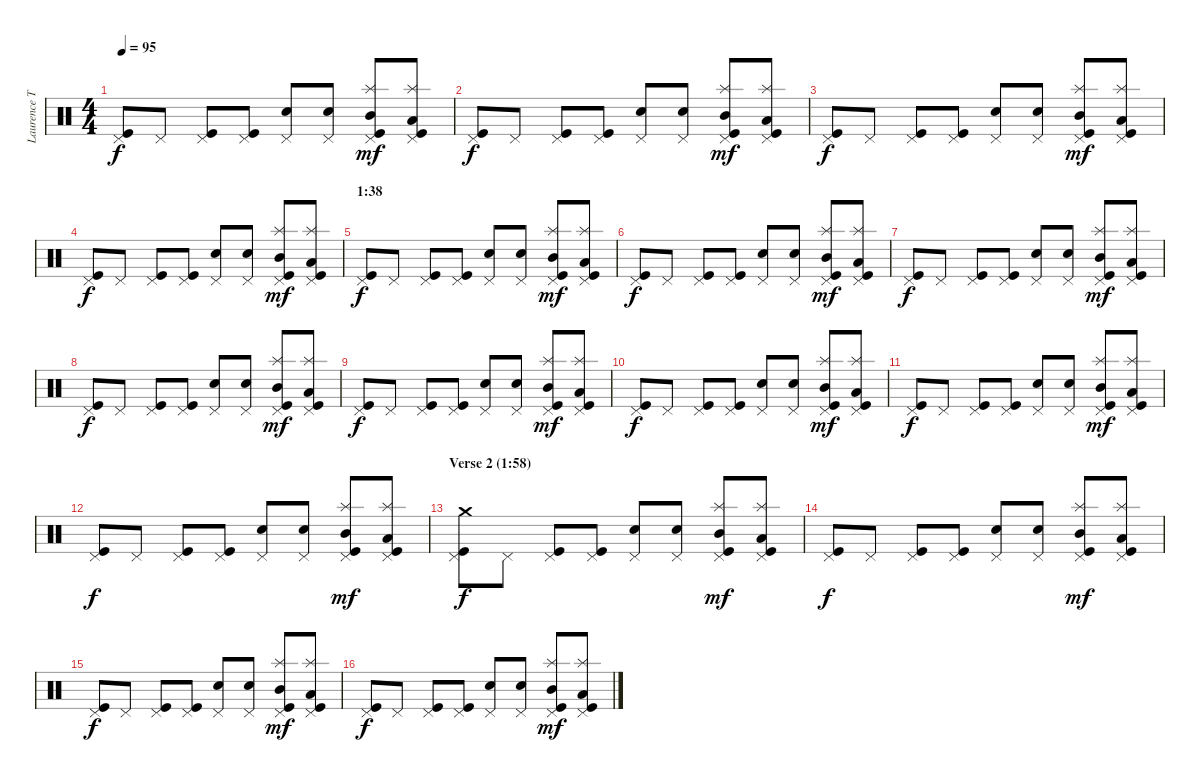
\track ("Laurence Tolhurst (drums)" "Laurence T") {instrument percussion}
\staff {score}
\articulation defaults
\ts (4 4)
\tempo 95
\clef neutral
\ks c
("Pedal Hi-Hat (hit)" "Kick (hit)").8{dy f} "Pedal Hi-Hat (hit)".8 ("Pedal Hi-Hat (hit)" "Kick (hit)").8 ("Pedal Hi-Hat (hit)" "Kick (hit)").8 ("Pedal Hi-Hat (hit)" "Snare (hit) 2").8 ("Pedal Hi-Hat (hit)" "Snare (hit) 2").8 ("Splash (hit)" "Mid Tom (hit)" "Pedal Hi-Hat (hit)" "Kick (hit)").8{dy mf} ("Splash (hit)" "Low Tom (hit)" "Pedal Hi-Hat (hit)" "Kick (hit)").8 |
("Pedal Hi-Hat (hit)" "Kick (hit)").8{dy f} "Pedal Hi-Hat (hit)".8 ("Pedal Hi-Hat (hit)" "Kick (hit)").8 ("Pedal Hi-Hat (hit)" "Kick (hit)").8 ("Pedal Hi-Hat (hit)" "Snare (hit) 2").8 ("Pedal Hi-Hat (hit)" "Snare (hit) 2").8 ("Splash (hit)" "Mid Tom (hit)" "Pedal Hi-Hat (hit)" "Kick (hit)").8{dy mf} ("Splash (hit)" "Low Tom (hit)" "Pedal Hi-Hat (hit)" "Kick (hit)").8 |
("Pedal Hi-Hat (hit)" "Kick (hit)").8{dy f} "Pedal Hi-Hat (hit)".8 ("Pedal Hi-Hat (hit)" "Kick (hit)").8 ("Pedal Hi-Hat (hit)" "Kick (hit)").8 ("Pedal Hi-Hat (hit)" "Snare (hit) 2").8 ("Pedal Hi-Hat (hit)" "Snare (hit) 2").8 ("Splash (hit)" "Mid Tom (hit)" "Pedal Hi-Hat (hit)" "Kick (hit)").8{dy mf} ("Splash (hit)" "Low Tom (hit)" "Pedal Hi-Hat (hit)" "Kick (hit)").8 |
("Pedal Hi-Hat (hit)" "Kick (hit)").8{dy f} "Pedal Hi-Hat (hit)".8 ("Pedal Hi-Hat (hit)" "Kick (hit)").8 ("Pedal Hi-Hat (hit)" "Kick (hit)").8 ("Pedal Hi-Hat (hit)" "Snare (hit) 2").8 ("Pedal Hi-Hat (hit)" "Snare (hit) 2").8 ("Splash (hit)" "Mid Tom (hit)" "Pedal Hi-Hat (hit)" "Kick (hit)").8{dy mf} ("Splash (hit)" "Low Tom (hit)" "Pedal Hi-Hat (hit)" "Kick (hit)").8 |
\section ("" "1:38")
("Pedal Hi-Hat (hit)" "Kick (hit)").8{dy f} "Pedal Hi-Hat (hit)".8 ("Pedal Hi-Hat (hit)" "Kick (hit)").8 ("Pedal Hi-Hat (hit)" "Kick (hit)").8 ("Pedal Hi-Hat (hit)" "Snare (hit) 2").8 ("Pedal Hi-Hat (hit)" "Snare (hit) 2").8 ("Splash (hit)" "Mid Tom (hit)" "Pedal Hi-Hat (hit)" "Kick (hit)").8{dy mf} ("Splash (hit)" "Low Tom (hit)" "Pedal Hi-Hat (hit)" "Kick (hit)").8 |
("Pedal Hi-Hat (hit)" "Kick (hit)").8{dy f} "Pedal Hi-Hat (hit)".8 ("Pedal Hi-Hat (hit)" "Kick (hit)").8 ("Pedal Hi-Hat (hit)" "Kick (hit)").8 ("Pedal Hi-Hat (hit)" "Snare (hit) 2").8 ("Pedal Hi-Hat (hit)" "Snare (hit) 2").8 ("Splash (hit)" "Mid Tom (hit)" "Pedal Hi-Hat (hit)" "Kick (hit)").8{dy mf} ("Splash (hit)" "Low Tom (hit)" "Pedal Hi-Hat (hit)" "Kick (hit)").8 |
("Pedal Hi-Hat (hit)" "Kick (hit)").8{dy f} "Pedal Hi-Hat (hit)".8 ("Pedal Hi-Hat (hit)" "Kick (hit)").8 ("Pedal Hi-Hat (hit)" "Kick (hit)").8 ("Pedal Hi-Hat (hit)" "Snare (hit) 2").8 ("Pedal Hi-Hat (hit)" "Snare (hit) 2").8 ("Splash (hit)" "Mid Tom (hit)" "Pedal Hi-Hat (hit)" "Kick (hit)").8{dy mf} ("Splash (hit)" "Low Tom (hit)" "Pedal Hi-Hat (hit)" "Kick (hit)").8 |
("Pedal Hi-Hat (hit)" "Kick (hit)").8{dy f} "Pedal Hi-Hat (hit)".8 ("Pedal Hi-Hat (hit)" "Kick (hit)").8 ("Pedal Hi-Hat (hit)" "Kick (hit)").8 ("Pedal Hi-Hat (hit)" "Snare (hit) 2").8 ("Pedal Hi-Hat (hit)" "Snare (hit) 2").8 ("Splash (hit)" "Mid Tom (hit)" "Pedal Hi-Hat (hit)" "Kick (hit)").8{dy mf} ("Splash (hit)" "Low Tom (hit)" "Pedal Hi-Hat (hit)" "Kick (hit)").8 |
("Pedal Hi-Hat (hit)" "Kick (hit)").8{dy f} "Pedal Hi-Hat (hit)".8 ("Pedal Hi-Hat (hit)" "Kick (hit)").8 ("Pedal Hi-Hat (hit)" "Kick (hit)").8 ("Pedal Hi-Hat (hit)" "Snare (hit) 2").8 ("Pedal Hi-Hat (hit)" "Snare (hit) 2").8 ("Splash (hit)" "Mid Tom (hit)" "Pedal Hi-Hat (hit)" "Kick (hit)").8{dy mf} ("Splash (hit)" "Low Tom (hit)" "Pedal Hi-Hat (hit)" "Kick (hit)").8 |
("Pedal Hi-Hat (hit)" "Kick (hit)").8{dy f} "Pedal Hi-Hat (hit)".8 ("Pedal Hi-Hat (hit)" "Kick (hit)").8 ("Pedal Hi-Hat (hit)" "Kick (hit)").8 ("Pedal Hi-Hat (hit)" "Snare (hit) 2").8 ("Pedal Hi-Hat (hit)" "Snare (hit) 2").8 ("Splash (hit)" "Mid Tom (hit)" "Pedal Hi-Hat (hit)" "Kick (hit)").8{dy mf} ("Splash (hit)" "Low Tom (hit)" "Pedal Hi-Hat (hit)" "Kick (hit)").8 |
("Pedal Hi-Hat (hit)" "Kick (hit)").8{dy f} "Pedal Hi-Hat (hit)".8 ("Pedal Hi-Hat (hit)" "Kick (hit)").8 ("Pedal Hi-Hat (hit)" "Kick (hit)").8 ("Pedal Hi-Hat (hit)" "Snare (hit) 2").8 ("Pedal Hi-Hat (hit)" "Snare (hit) 2").8 ("Splash (hit)" "Mid Tom (hit)" "Pedal Hi-Hat (hit)" "Kick (hit)").8{dy mf} ("Splash (hit)" "Low Tom (hit)" "Pedal Hi-Hat (hit)" "Kick (hit)").8 |
("Pedal Hi-Hat (hit)" "Kick (hit)").8{dy f} "Pedal Hi-Hat (hit)".8 ("Pedal Hi-Hat (hit)" "Kick (hit)").8 ("Pedal Hi-Hat (hit)" "Kick (hit)").8 ("Pedal Hi-Hat (hit)" "Snare (hit) 2").8 ("Pedal Hi-Hat (hit)" "Snare (hit) 2").8 ("Splash (hit)" "Mid Tom (hit)" "Pedal Hi-Hat (hit)" "Kick (hit)").8{dy mf} ("Splash (hit)" "Low Tom (hit)" "Pedal Hi-Hat (hit)" "Kick (hit)").8 |
\section ("" "Verse 2 (1:58)")
("Crash medium (hit)" "Pedal Hi-Hat (hit)" "Kick (hit)").8{dy f} "Pedal Hi-Hat (hit)".8 ("Pedal Hi-Hat (hit)" "Kick (hit)").8 ("Pedal Hi-Hat (hit)" "Kick (hit)").8 ("Pedal Hi-Hat (hit)" "Snare (hit) 2").8 ("Pedal Hi-Hat (hit)" "Snare (hit) 2").8 ("Splash (hit)" "Mid Tom (hit)" "Pedal Hi-Hat (hit)" "Kick (hit)").8{dy mf} ("Splash (hit)" "Low Tom (hit)" "Pedal Hi-Hat (hit)" "Kick (hit)").8 |
("Pedal Hi-Hat (hit)" "Kick (hit)").8{dy f} "Pedal Hi-Hat (hit)".8 ("Pedal Hi-Hat (hit)" "Kick (hit)").8 ("Pedal Hi-Hat (hit)" "Kick (hit)").8 ("Pedal Hi-Hat (hit)" "Snare (hit) 2").8 ("Pedal Hi-Hat (hit)" "Snare (hit) 2").8 ("Splash (hit)" "Mid Tom (hit)" "Pedal Hi-Hat (hit)" "Kick (hit)").8{dy mf} ("Splash (hit)" "Low Tom (hit)" "Pedal Hi-Hat (hit)" "Kick (hit)").8 |
("Pedal Hi-Hat (hit)" "Kick (hit)").8{dy f} "Pedal Hi-Hat (hit)".8 ("Pedal Hi-Hat (hit)" "Kick (hit)").8 ("Pedal Hi-Hat (hit)" "Kick (hit)").8 ("Pedal Hi-Hat (hit)" "Snare (hit) 2").8 ("Pedal Hi-Hat (hit)" "Snare (hit) 2").8 ("Splash (hit)" "Mid Tom (hit)" "Pedal Hi-Hat (hit)" "Kick (hit)").8{dy mf} ("Splash (hit)" "Low Tom (hit)" "Pedal Hi-Hat (hit)" "Kick (hit)").8 |
("Pedal Hi-Hat (hit)" "Kick (hit)").8{dy f} "Pedal Hi-Hat (hit)".8 ("Pedal Hi-Hat (hit)" "Kick (hit)").8 ("Pedal Hi-Hat (hit)" "Kick (hit)").8 ("Pedal Hi-Hat (hit)" "Snare (hit) 2").8 ("Pedal Hi-Hat (hit)" "Snare (hit) 2").8 ("Splash (hit)" "Mid Tom (hit)" "Pedal Hi-Hat (hit)" "Kick (hit)").8{dy mf} ("Splash (hit)" "Low Tom (hit)" "Pedal Hi-Hat (hit)" "Kick (hit)").8
